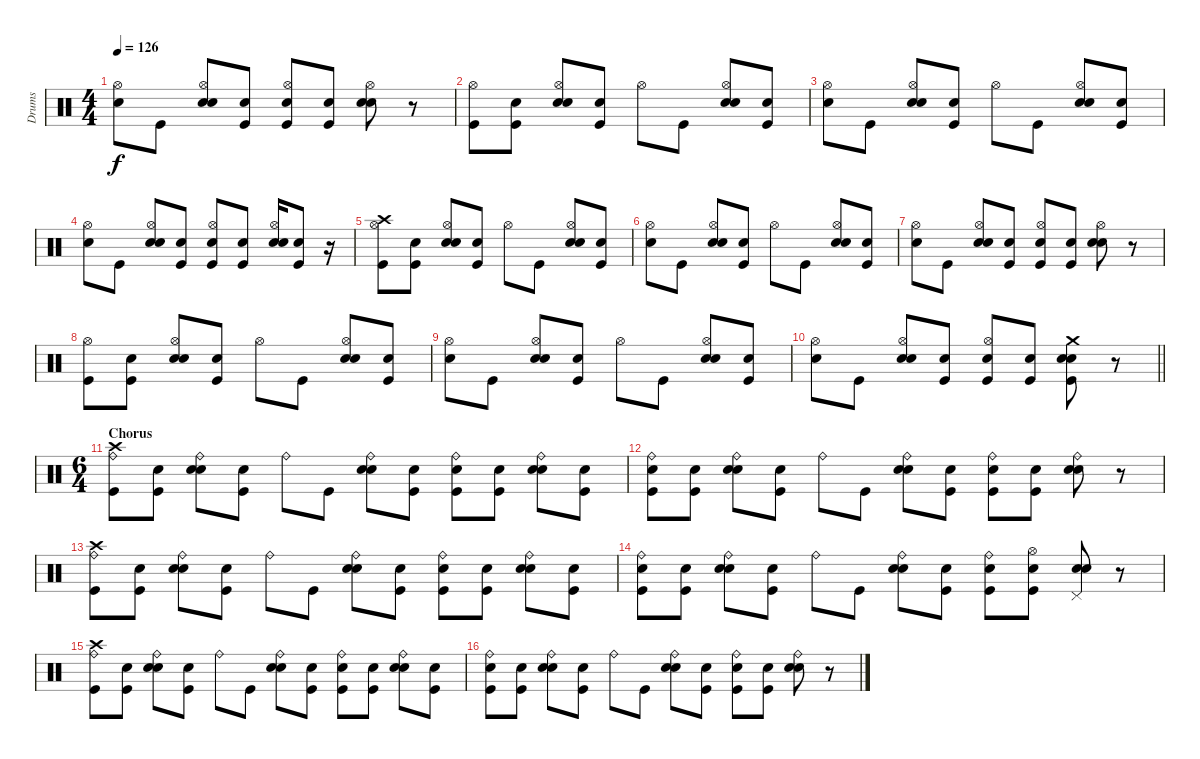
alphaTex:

\track ("Drums" "Drums") {instrument percussion}
\staff {score}
\articulation defaults
\ts (4 4)
\tempo 126
\clef neutral
\ks c
("Snare (hit)" "Hi-Hat (open)").8{dy f} "Kick (hit)".8 ("Snare (hit)" "Electric Snare (hit)" "Hi-Hat (open)").8 ("Snare (hit)" "Kick (hit)").8 ("Snare (hit)" "Kick (hit)" "Hi-Hat (open)").8 ("Snare (hit)" "Kick (hit)").8 ("Snare (hit)" "Electric Snare (hit)" "Hi-Hat (open)").8 r.8 |
("Kick (hit)" "Hi-Hat (open)").8 ("Snare (hit)" "Kick (hit)").8 ("Snare (hit)" "Hi-Hat (open)" "Electric Snare (hit)").8 ("Snare (hit)" "Kick (hit)").8 "Hi-Hat (open)".8 "Kick (hit)".8 ("Snare (hit)" "Electric Snare (hit)" "Hi-Hat (open)").8 ("Snare (hit)" "Kick (hit)").8 |
("Snare (hit)" "Hi-Hat (open)").8 "Kick (hit)".8 ("Snare (hit)" "Hi-Hat (open)" "Electric Snare (hit)").8 ("Snare (hit)" "Kick (hit)").8 "Hi-Hat (open)".8 "Kick (hit)".8 ("Snare (hit)" "Hi-Hat (open)" "Electric Snare (hit)").8 ("Snare (hit)" "Kick (hit)").8 |
("Snare (hit)" "Hi-Hat (open)").8 "Kick (hit)".8 ("Snare (hit)" "Hi-Hat (open)" "Electric Snare (hit)").8 ("Snare (hit)" "Kick (hit)").8 ("Snare (hit)" "Kick (hit)" "Hi-Hat (open)").8 ("Snare (hit)" "Kick (hit)").8 ("Snare (hit)" "Hi-Hat (open)" "Electric Snare (hit)").16 ("Snare (hit)" "Kick (hit)").8 r.16 |
("Kick (hit)" "Hi-Hat (open)" "Crash high (hit)").8 ("Snare (hit)" "Kick (hit)").8 ("Snare (hit)" "Hi-Hat (open)" "Electric Snare (hit)").8 ("Snare (hit)" "Kick (hit)").8 "Hi-Hat (open)".8 "Kick (hit)".8 ("Snare (hit)" "Electric Snare (hit)" "Hi-Hat (open)").8 ("Snare (hit)" "Kick (hit)").8 |
("Snare (hit)" "Hi-Hat (open)").8 "Kick (hit)".8 ("Snare (hit)" "Hi-Hat (open)" "Electric Snare (hit)").8 ("Snare (hit)" "Kick (hit)").8 "Hi-Hat (open)".8 "Kick (hit)".8 ("Snare (hit)" "Hi-Hat (open)" "Electric Snare (hit)").8 ("Snare (hit)" "Kick (hit)").8 |
("Snare (hit)" "Hi-Hat (open)").8 "Kick (hit)".8 ("Snare (hit)" "Electric Snare (hit)" "Hi-Hat (open)").8 ("Snare (hit)" "Kick (hit)").8 ("Snare (hit)" "Hi-Hat (open)" "Kick (hit)").8 ("Snare (hit)" "Kick (hit)").8 ("Snare (hit)" "Hi-Hat (open)" "Electric Snare (hit)").8 r.8 |
("Kick (hit)" "Hi-Hat (open)").8 ("Snare (hit)" "Kick (hit)").8 ("Snare (hit)" "Hi-Hat (open)" "Electric Snare (hit)").8 ("Snare (hit)" "Kick (hit)").8 "Hi-Hat (open)".8 "Kick (hit)".8 ("Snare (hit)" "Hi-Hat (open)" "Electric Snare (hit)").8 ("Snare (hit)" "Kick (hit)").8 |
("Snare (hit)" "Hi-Hat (open)").8 "Kick (hit)".8 ("Snare (hit)" "Hi-Hat (open)" "Electric Snare (hit)").8 ("Snare (hit)" "Kick (hit)").8 "Hi-Hat (open)".8 "Kick (hit)".8 ("Snare (hit)" "Hi-Hat (open)" "Electric Snare (hit)").8 ("Snare (hit)" "Kick (hit)").8 |
\barLineRight lightlight
("Snare (hit)" "Hi-Hat (open)").8 "Kick (hit)".8 ("Snare (hit)" "Hi-Hat (open)" "Electric Snare (hit)").8 ("Snare (hit)" "Kick (hit)").8 ("Snare (hit)" "Hi-Hat (open)" "Kick (hit)").8 ("Snare (hit)" "Kick (hit)").8 ("Snare (hit)" "Electric Snare (hit)" "Kick (hit)" "Crash medium (hit)").8 r.8 |
\ts (6 4)
\section ("" "Chorus")
("Crash high (hit)" "Kick (hit)" "Ride (bell)").8 ("Snare (hit)" "Kick (hit)").8 ("Snare (hit)" "Electric Snare (hit)" "Ride (bell)").8 ("Snare (hit)" "Kick (hit)").8 "Ride (bell)".8 "Kick (hit)".8 ("Snare (hit)" "Electric Snare (hit)" "Ride (bell)").8 ("Snare (hit)" "Kick (hit)").8 ("Snare (hit)" "Ride (bell)" "Kick (hit)").8 ("Snare (hit)" "Kick (hit)").8 ("Snare (hit)" "Electric Snare (hit)" "Ride (bell)").8 ("Snare (hit)" "Kick (hit)").8 |
("Snare (hit)" "Ride (bell)" "Kick (hit)").8 ("Snare (hit)" "Kick (hit)").8 ("Snare (hit)" "Ride (bell)" "Electric Snare (hit)").8 ("Snare (hit)" "Kick (hit)").8 "Ride (bell)".8 "Kick (hit)".8 ("Snare (hit)" "Electric Snare (hit)" "Ride (bell)").8 ("Snare (hit)" "Kick (hit)").8 ("Snare (hit)" "Kick (hit)" "Ride (bell)").8 ("Snare (hit)" "Kick (hit)").8 ("Snare (hit)" "Ride (bell)" "Electric Snare (hit)").8 r.8 |
("Crash high (hit)" "Kick (hit)" "Ride (bell)").8 ("Snare (hit)" "Kick (hit)").8 ("Snare (hit)" "Electric Snare (hit)" "Ride (bell)").8 ("Snare (hit)" "Kick (hit)").8 "Ride (bell)".8 "Kick (hit)".8 ("Snare (hit)" "Ride (bell)" "Electric Snare (hit)").8 ("Snare (hit)" "Kick (hit)").8 ("Snare (hit)" "Kick (hit)" "Ride (bell)").8 ("Snare (hit)" "Kick (hit)").8 ("Snare (hit)" "Electric Snare (hit)" "Ride (bell)").8 ("Snare (hit)" "Kick (hit)").8 |
("Snare (hit)" "Kick (hit)" "Ride (bell)").8 ("Snare (hit)" "Kick (hit)").8 ("Snare (hit)" "Ride (bell)" "Electric Snare (hit)").8 ("Snare (hit)" "Kick (hit)").8 "Ride (bell)".8 "Kick (hit)".8 ("Snare (hit)" "Ride (bell)" "Electric Snare (hit)").8 ("Snare (hit)" "Kick (hit)").8 ("Snare (hit)" "Kick (hit)" "Ride (bell)").8 ("Snare (hit)" "Kick (hit)" "Hi-Hat (open)").8 ("Snare (hit)" "Electric Snare (hit)" "Pedal Hi-Hat (hit)").8 r.8 |
("Crash high (hit)" "Kick (hit)" "Ride (bell)").8 ("Snare (hit)" "Kick (hit)").8 ("Snare (hit)" "Ride (bell)" "Electric Snare (hit)").8 ("Snare (hit)" "Kick (hit)").8 "Ride (bell)".8 "Kick (hit)".8 ("Snare (hit)" "Ride (bell)" "Electric Snare (hit)").8 ("Snare (hit)" "Kick (hit)").8 ("Snare (hit)" "Kick (hit)" "Ride (bell)").8 ("Snare (hit)" "Kick (hit)").8 ("Snare (hit)" "Electric Snare (hit)" "Ride (bell)").8 ("Snare (hit)" "Kick (hit)").8 |
("Snare (hit)" "Ride (bell)" "Kick (hit)").8 ("Snare (hit)" "Kick (hit)").8 ("Snare (hit)" "Electric Snare (hit)" "Ride (bell)").8 ("Snare (hit)" "Kick (hit)").8 "Ride (bell)".8 "Kick (hit)".8 ("Snare (hit)" "Electric Snare (hit)" "Ride (bell)").8 ("Snare (hit)" "Kick (hit)").8 ("Snare (hit)" "Ride (bell)" "Kick (hit)").8 ("Snare (hit)" "Kick (hit)").8 ("Snare (hit)" "Ride (bell)" "Electric Snare (hit)").8 r.8
